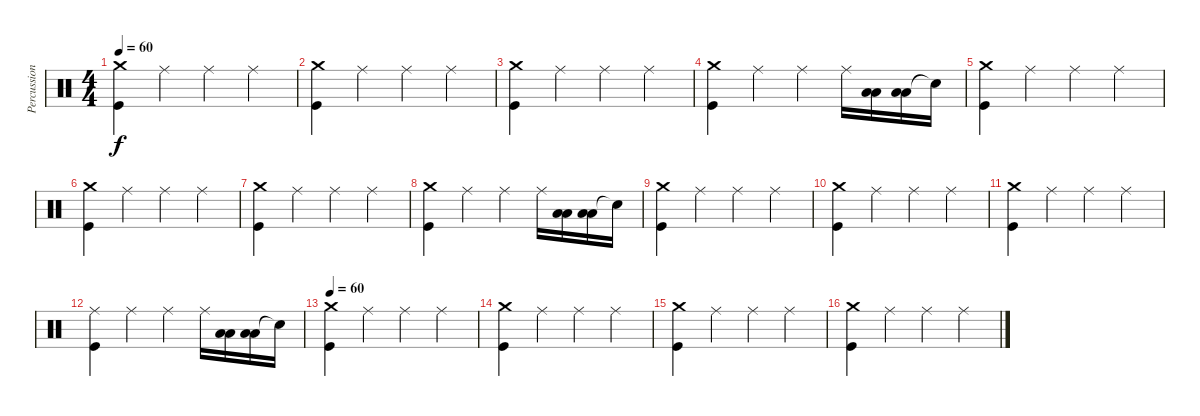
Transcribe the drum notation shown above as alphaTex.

\track ("Percussions" "Percussion") {instrument percussion}
\staff {score}
\articulation defaults
\ts (4 4)
\tempo 60
\clef neutral
\ks c
("Crash medium (hit)" "Kick (hit)").4{dy f volume 16} "Ride (middle)".4 "Ride (middle)".4 "Ride (middle)".4 |
("Crash medium (hit)" "Kick (hit)").4 "Ride (middle)".4 "Ride (middle)".4 "Ride (middle)".4 |
("Crash medium (hit)" "Kick (hit)").4 "Ride (middle)".4 "Ride (middle)".4 "Ride (middle)".4 |
("Crash medium (hit)" "Kick (hit)").4 "Ride (middle)".4 "Ride (middle)".4 "Ride (middle)".16 ("Low Tom (hit)" "Low Tom (hit)").16{volume 12} ("Low Tom (hit)" "Low Tom (hit)").16 "Snare (hit)"{t}.16 |
("Crash medium (hit)" "Kick (hit)").4{volume 16} "Ride (middle)".4 "Ride (middle)".4 "Ride (middle)".4 |
("Crash medium (hit)" "Kick (hit)").4 "Ride (middle)".4 "Ride (middle)".4 "Ride (middle)".4 |
("Crash medium (hit)" "Kick (hit)").4 "Ride (middle)".4 "Ride (middle)".4 "Ride (middle)".4 |
("Crash medium (hit)" "Kick (hit)").4 "Ride (middle)".4 "Ride (middle)".4 "Ride (middle)".16 ("Low Tom (hit)" "Low Tom (hit)").16{volume 12} ("Low Tom (hit)" "Low Tom (hit)").16 "Snare (hit)"{t}.16 |
("Crash medium (hit)" "Kick (hit)").4{volume 16} "Ride (middle)".4 "Ride (middle)".4 "Ride (middle)".4 |
("Crash medium (hit)" "Kick (hit)").4 "Ride (middle)".4 "Ride (middle)".4 "Ride (middle)".4 |
("Crash medium (hit)" "Kick (hit)").4 "Ride (middle)".4 "Ride (middle)".4 "Ride (middle)".4 |
("Ride (middle)" "Kick (hit)").4 "Ride (middle)".4 "Ride (middle)".4 "Ride (middle)".16 ("Low Tom (hit)" "Low Tom (hit)").16{volume 12} ("Low Tom (hit)" "Low Tom (hit)").16 "Snare (hit)"{t}.16 |
\tempo 60
("Crash medium (hit)" "Kick (hit)").4{volume 16} "Ride (middle)".4 "Ride (middle)".4 "Ride (middle)".4 |
("Crash medium (hit)" "Kick (hit)").4 "Ride (middle)".4 "Ride (middle)".4 "Ride (middle)".4 |
("Crash medium (hit)" "Kick (hit)").4 "Ride (middle)".4 "Ride (middle)".4 "Ride (middle)".4 |
("Crash medium (hit)" "Kick (hit)").4 "Ride (middle)".4 "Ride (middle)".4 "Ride (middle)".4
